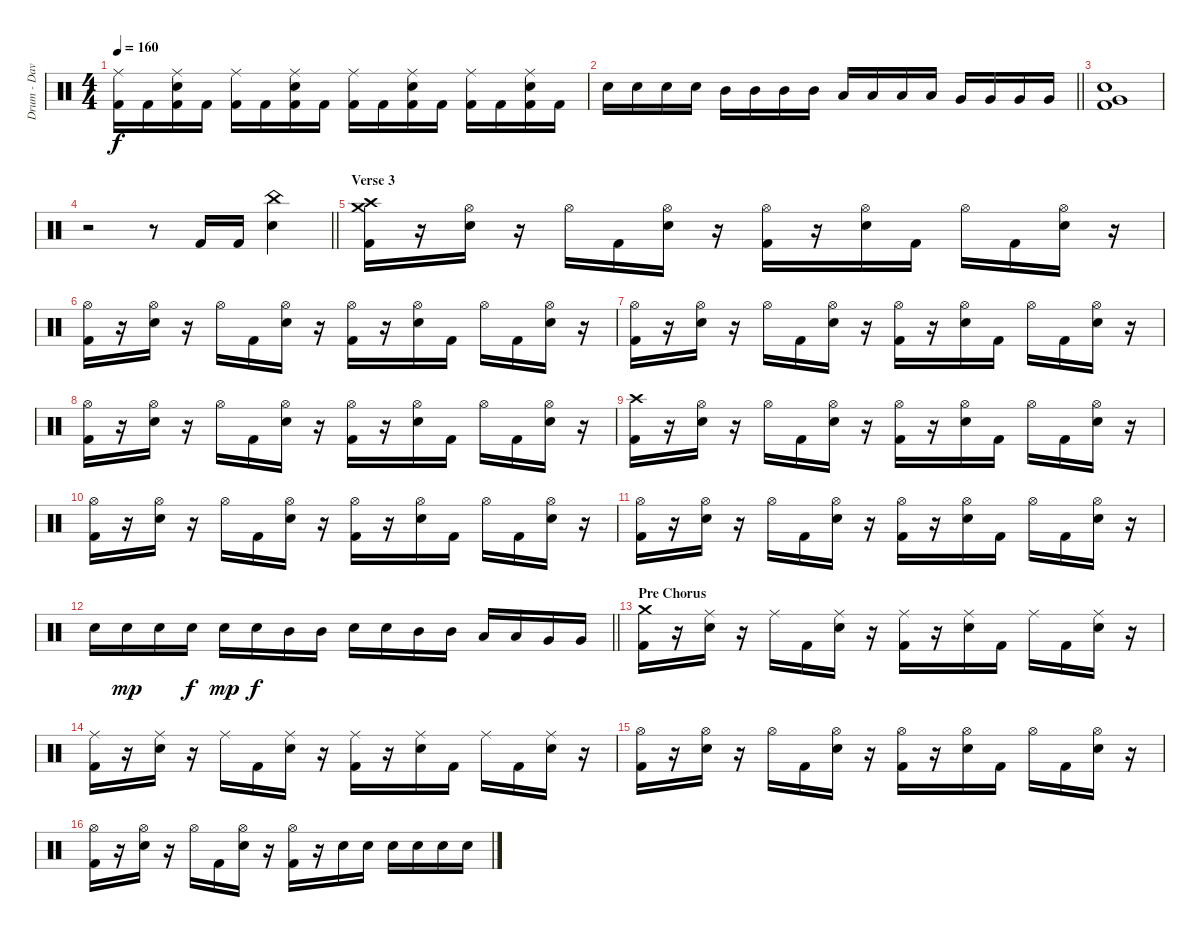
\track ("Drum - Dave Mackintosh" "Drum - Dav") {instrument percussion}
\staff {score}
\articulation defaults
\ts (4 4)
\tempo 160
\clef neutral
\ks c
("Ride (middle)" "Kick (hit) 2").16{dy f} "Kick (hit) 2".16 ("Ride (middle)" "Electric Snare (hit)" "Kick (hit) 2").16 "Kick (hit) 2".16 ("Ride (middle)" "Kick (hit) 2").16 "Kick (hit) 2".16 ("Ride (middle)" "Electric Snare (hit)" "Kick (hit) 2").16 "Kick (hit) 2".16 ("Ride (middle)" "Kick (hit) 2").16 "Kick (hit) 2".16 ("Ride (middle)" "Electric Snare (hit)" "Kick (hit) 2").16 "Kick (hit) 2".16 ("Ride (middle)" "Kick (hit) 2").16 "Kick (hit) 2".16 ("Ride (middle)" "Electric Snare (hit)" "Kick (hit) 2").16 "Kick (hit) 2".16 |
\barLineRight lightlight "Electric Snare (hit)".16 "Electric Snare (hit)".16 "Electric Snare (hit)".16 "Electric Snare (hit)".16 "Mid Tom (hit)".16 "Mid Tom (hit)".16 "Mid Tom (hit)".16 "Mid Tom (hit)".16 "Low Tom (hit)".16 "Low Tom (hit)".16 "Low Tom (hit)".16 "Low Tom (hit)".16 "Very Low Tom (hit)".16 "Very Low Tom (hit)".16 "Very Low Tom (hit)".16 "Very Low Tom (hit)".16
|
\section ("" "")
("Very Low Tom (hit)" "Electric Snare (hit)" "Kick (hit) 2").1 |
\barLineRight lightlight
r.2 r.8 "Kick (hit) 2".16 "Kick (hit) 2".16 ("China (hit)" "Electric Snare (hit)").4 |
\section ("" "Verse 3")
("Crash medium (hit)" "Crash high (hit)" "Kick (hit) 2").16 r.16 ("Hi-Hat (open)" "Electric Snare (hit)").16 r.16 "Hi-Hat (open)".16 "Kick (hit) 2".16 ("Hi-Hat (open)" "Electric Snare (hit)").16 r.16 ("Hi-Hat (open)" "Kick (hit) 2").16 r.16 ("Hi-Hat (open)" "Electric Snare (hit)").16 "Kick (hit) 2".16 "Hi-Hat (open)".16 "Kick (hit) 2".16 ("Hi-Hat (open)" "Electric Snare (hit)").16 r.16 |
("Hi-Hat (open)" "Kick (hit) 2").16 r.16 ("Hi-Hat (open)" "Electric Snare (hit)").16 r.16 "Hi-Hat (open)".16 "Kick (hit) 2".16 ("Hi-Hat (open)" "Electric Snare (hit)").16 r.16 ("Hi-Hat (open)" "Kick (hit) 2").16 r.16 ("Hi-Hat (open)" "Electric Snare (hit)").16 "Kick (hit) 2".16 "Hi-Hat (open)".16 "Kick (hit) 2".16 ("Hi-Hat (open)" "Electric Snare (hit)").16 r.16 |
("Hi-Hat (open)" "Kick (hit) 2").16 r.16 ("Hi-Hat (open)" "Electric Snare (hit)").16 r.16 "Hi-Hat (open)".16 "Kick (hit) 2".16 ("Hi-Hat (open)" "Electric Snare (hit)").16 r.16 ("Hi-Hat (open)" "Kick (hit) 2").16 r.16 ("Hi-Hat (open)" "Electric Snare (hit)").16 "Kick (hit) 2".16 "Hi-Hat (open)".16 "Kick (hit) 2".16 ("Hi-Hat (open)" "Electric Snare (hit)").16 r.16 |
("Hi-Hat (open)" "Kick (hit) 2").16 r.16 ("Hi-Hat (open)" "Electric Snare (hit)").16 r.16 "Hi-Hat (open)".16 "Kick (hit) 2".16 ("Hi-Hat (open)" "Electric Snare (hit)").16 r.16 ("Hi-Hat (open)" "Kick (hit) 2").16 r.16 ("Hi-Hat (open)" "Electric Snare (hit)").16 "Kick (hit) 2".16 "Hi-Hat (open)".16 "Kick (hit) 2".16 ("Hi-Hat (open)" "Electric Snare (hit)").16 r.16 |
("Crash high (hit)" "Kick (hit) 2").16 r.16 ("Hi-Hat (open)" "Electric Snare (hit)").16 r.16 "Hi-Hat (open)".16 "Kick (hit) 2".16 ("Hi-Hat (open)" "Electric Snare (hit)").16 r.16 ("Hi-Hat (open)" "Kick (hit) 2").16 r.16 ("Hi-Hat (open)" "Electric Snare (hit)").16 "Kick (hit) 2".16 "Hi-Hat (open)".16 "Kick (hit) 2".16 ("Hi-Hat (open)" "Electric Snare (hit)").16 r.16 |
("Hi-Hat (open)" "Kick (hit) 2").16 r.16 ("Hi-Hat (open)" "Electric Snare (hit)").16 r.16 "Hi-Hat (open)".16 "Kick (hit) 2".16 ("Hi-Hat (open)" "Electric Snare (hit)").16 r.16 ("Hi-Hat (open)" "Kick (hit) 2").16 r.16 ("Hi-Hat (open)" "Electric Snare (hit)").16 "Kick (hit) 2".16 "Hi-Hat (open)".16 "Kick (hit) 2".16 ("Hi-Hat (open)" "Electric Snare (hit)").16 r.16 |
("Hi-Hat (open)" "Kick (hit) 2").16 r.16 ("Hi-Hat (open)" "Electric Snare (hit)").16 r.16 "Hi-Hat (open)".16 "Kick (hit) 2".16 ("Hi-Hat (open)" "Electric Snare (hit)").16 r.16 ("Hi-Hat (open)" "Kick (hit) 2").16 r.16 ("Hi-Hat (open)" "Electric Snare (hit)").16 "Kick (hit) 2".16 "Hi-Hat (open)".16 "Kick (hit) 2".16 ("Hi-Hat (open)" "Electric Snare (hit)").16 r.16 |
\barLineRight lightlight "Electric Snare (hit)".16 "Electric Snare (hit)".16{dy mp} "Electric Snare (hit)".16 "Electric Snare (hit)".16{dy f} "Electric Snare (hit)".16{dy mp} "Electric Snare (hit)".16{dy f} "Mid Tom (hit)".16 "Mid Tom (hit)".16 "Electric Snare (hit)".16 "Electric Snare (hit)".16 "Mid Tom (hit)".16 "Mid Tom (hit)".16 "Low Tom (hit)".16 "Low Tom (hit)".16 "Very Low Tom (hit)".16 "Very Low Tom (hit)".16
|
\section ("" "Pre Chorus")
("Crash medium (hit)" "Kick (hit) 2").16 r.16 ("Ride (middle)" "Electric Snare (hit)").16 r.16 "Ride (middle)".16 "Kick (hit) 2".16 ("Ride (middle)" "Electric Snare (hit)").16 r.16 ("Ride (middle)" "Kick (hit) 2").16 r.16 ("Ride (middle)" "Electric Snare (hit)").16 "Kick (hit) 2".16 "Ride (middle)".16 "Kick (hit) 2".16 ("Ride (middle)" "Electric Snare (hit)").16 r.16 |
("Ride (middle)" "Kick (hit) 2").16 r.16 ("Ride (middle)" "Electric Snare (hit)").16 r.16 "Ride (middle)".16 "Kick (hit) 2".16 ("Ride (middle)" "Electric Snare (hit)").16 r.16 ("Ride (middle)" "Kick (hit) 2").16 r.16 ("Ride (middle)" "Electric Snare (hit)").16 "Kick (hit) 2".16 "Ride (middle)".16 "Kick (hit) 2".16 ("Ride (middle)" "Electric Snare (hit)").16 r.16 |
("Hi-Hat (open)" "Kick (hit) 2").16 r.16 ("Hi-Hat (open)" "Electric Snare (hit)").16 r.16 "Hi-Hat (open)".16 "Kick (hit) 2".16 ("Hi-Hat (open)" "Electric Snare (hit)").16 r.16 ("Hi-Hat (open)" "Kick (hit) 2").16 r.16 ("Hi-Hat (open)" "Electric Snare (hit)").16 "Kick (hit) 2".16 "Hi-Hat (open)".16 "Kick (hit) 2".16 ("Hi-Hat (open)" "Electric Snare (hit)").16 r.16 |
("Hi-Hat (open)" "Kick (hit) 2").16 r.16 ("Hi-Hat (open)" "Electric Snare (hit)").16 r.16 "Hi-Hat (open)".16 "Kick (hit) 2".16 ("Hi-Hat (open)" "Electric Snare (hit)").16 r.16 ("Hi-Hat (open)" "Kick (hit) 2").16 r.16 "Electric Snare (hit)".16 "Electric Snare (hit)".16 "Electric Snare (hit)".16 "Electric Snare (hit)".16 "Electric Snare (hit)".16 "Electric Snare (hit)".16
